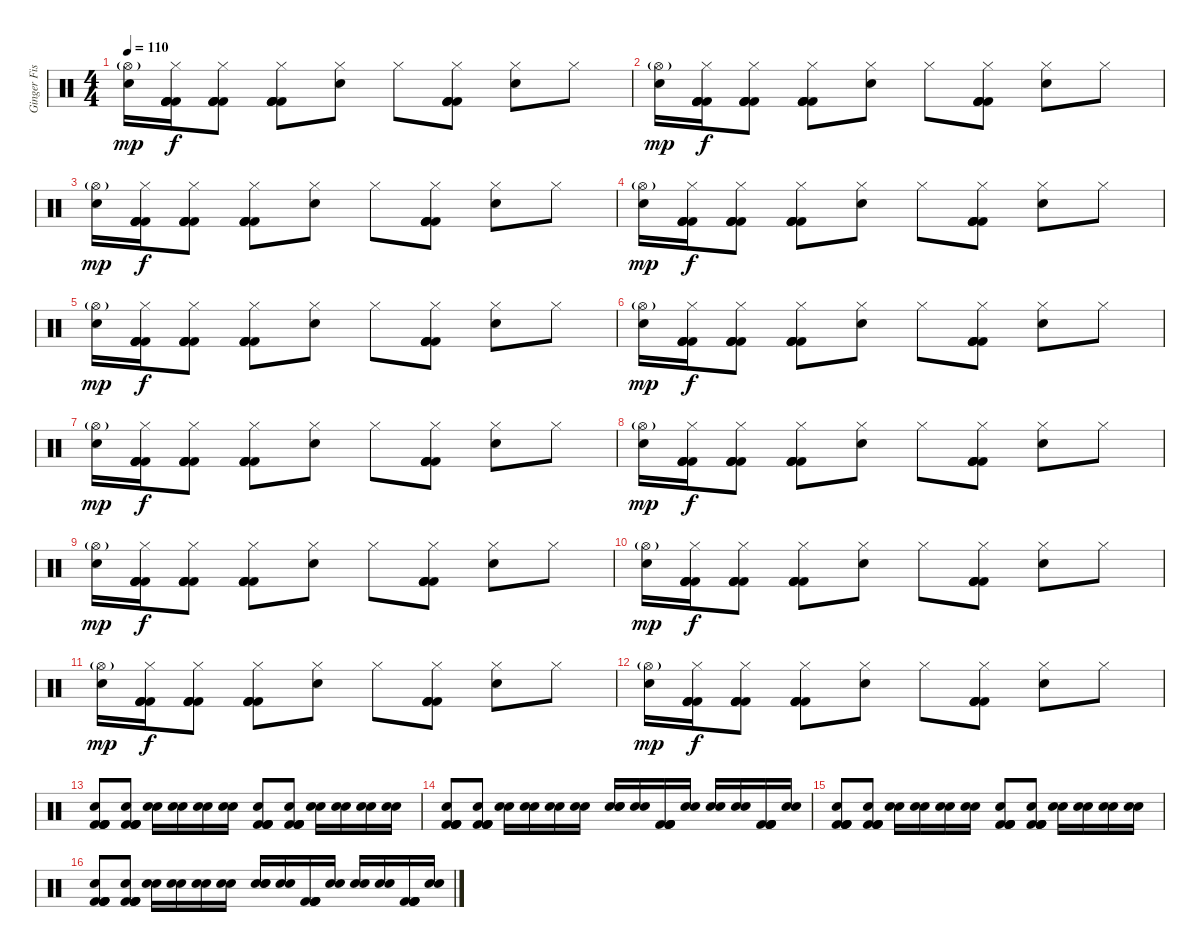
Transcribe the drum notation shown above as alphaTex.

\track ("Ginger Fish" "Ginger Fis") {instrument percussion}
\staff {score}
\articulation defaults
\ts (4 4)
\tempo 110
\clef neutral
\ks c
("Hi-Hat (open)"{g} "Electric Snare (hit)").16{dy mp} ("Hi-Hat (closed)" "Kick (hit) 2" "Kick (hit) 2" "Kick (hit) 2" "Kick (hit) 2").16{dy f} ("Hi-Hat (closed)" "Kick (hit) 2" "Kick (hit) 2" "Kick (hit) 2" "Kick (hit) 2").8 ("Hi-Hat (closed)" "Kick (hit) 2" "Kick (hit) 2" "Kick (hit) 2" "Kick (hit) 2").8 ("Hi-Hat (closed)" "Electric Snare (hit)").8 "Hi-Hat (closed)".8 ("Hi-Hat (closed)" "Kick (hit) 2" "Kick (hit) 2" "Kick (hit) 2" "Kick (hit) 2").8 ("Hi-Hat (closed)" "Electric Snare (hit)").8 "Hi-Hat (closed)".8 |
("Hi-Hat (open)"{g} "Electric Snare (hit)").16{dy mp} ("Hi-Hat (closed)" "Kick (hit) 2" "Kick (hit) 2" "Kick (hit) 2" "Kick (hit) 2").16{dy f} ("Hi-Hat (closed)" "Kick (hit) 2" "Kick (hit) 2" "Kick (hit) 2" "Kick (hit) 2").8 ("Hi-Hat (closed)" "Kick (hit) 2" "Kick (hit) 2" "Kick (hit) 2" "Kick (hit) 2").8 ("Hi-Hat (closed)" "Electric Snare (hit)").8 "Hi-Hat (closed)".8 ("Hi-Hat (closed)" "Kick (hit) 2" "Kick (hit) 2" "Kick (hit) 2" "Kick (hit) 2").8 ("Hi-Hat (closed)" "Electric Snare (hit)").8 "Hi-Hat (closed)".8 |
("Hi-Hat (open)"{g} "Electric Snare (hit)").16{dy mp} ("Hi-Hat (closed)" "Kick (hit) 2" "Kick (hit) 2" "Kick (hit) 2" "Kick (hit) 2").16{dy f} ("Hi-Hat (closed)" "Kick (hit) 2" "Kick (hit) 2" "Kick (hit) 2" "Kick (hit) 2").8 ("Hi-Hat (closed)" "Kick (hit) 2" "Kick (hit) 2" "Kick (hit) 2" "Kick (hit) 2").8 ("Hi-Hat (closed)" "Electric Snare (hit)").8 "Hi-Hat (closed)".8 ("Hi-Hat (closed)" "Kick (hit) 2" "Kick (hit) 2" "Kick (hit) 2" "Kick (hit) 2").8 ("Hi-Hat (closed)" "Electric Snare (hit)").8 "Hi-Hat (closed)".8 |
("Hi-Hat (open)"{g} "Electric Snare (hit)").16{dy mp} ("Hi-Hat (closed)" "Kick (hit) 2" "Kick (hit) 2" "Kick (hit) 2" "Kick (hit) 2").16{dy f} ("Hi-Hat (closed)" "Kick (hit) 2" "Kick (hit) 2" "Kick (hit) 2" "Kick (hit) 2").8 ("Hi-Hat (closed)" "Kick (hit) 2" "Kick (hit) 2" "Kick (hit) 2" "Kick (hit) 2").8 ("Hi-Hat (closed)" "Electric Snare (hit)").8 "Hi-Hat (closed)".8 ("Hi-Hat (closed)" "Kick (hit) 2" "Kick (hit) 2" "Kick (hit) 2" "Kick (hit) 2").8 ("Hi-Hat (closed)" "Electric Snare (hit)").8 "Hi-Hat (closed)".8 |
("Hi-Hat (open)"{g} "Electric Snare (hit)").16{dy mp} ("Hi-Hat (closed)" "Kick (hit) 2" "Kick (hit) 2" "Kick (hit) 2" "Kick (hit) 2").16{dy f} ("Hi-Hat (closed)" "Kick (hit) 2" "Kick (hit) 2" "Kick (hit) 2" "Kick (hit) 2").8 ("Hi-Hat (closed)" "Kick (hit) 2" "Kick (hit) 2" "Kick (hit) 2" "Kick (hit) 2").8 ("Hi-Hat (closed)" "Electric Snare (hit)").8 "Hi-Hat (closed)".8 ("Hi-Hat (closed)" "Kick (hit) 2" "Kick (hit) 2" "Kick (hit) 2" "Kick (hit) 2").8 ("Hi-Hat (closed)" "Electric Snare (hit)").8 "Hi-Hat (closed)".8 |
("Hi-Hat (open)"{g} "Electric Snare (hit)").16{dy mp} ("Hi-Hat (closed)" "Kick (hit) 2" "Kick (hit) 2" "Kick (hit) 2" "Kick (hit) 2").16{dy f} ("Hi-Hat (closed)" "Kick (hit) 2" "Kick (hit) 2" "Kick (hit) 2" "Kick (hit) 2").8 ("Hi-Hat (closed)" "Kick (hit) 2" "Kick (hit) 2" "Kick (hit) 2" "Kick (hit) 2").8 ("Hi-Hat (closed)" "Electric Snare (hit)").8 "Hi-Hat (closed)".8 ("Hi-Hat (closed)" "Kick (hit) 2" "Kick (hit) 2" "Kick (hit) 2" "Kick (hit) 2").8 ("Hi-Hat (closed)" "Electric Snare (hit)").8 "Hi-Hat (closed)".8 |
("Hi-Hat (open)"{g} "Electric Snare (hit)").16{dy mp} ("Hi-Hat (closed)" "Kick (hit) 2" "Kick (hit) 2" "Kick (hit) 2" "Kick (hit) 2").16{dy f} ("Hi-Hat (closed)" "Kick (hit) 2" "Kick (hit) 2" "Kick (hit) 2" "Kick (hit) 2").8 ("Hi-Hat (closed)" "Kick (hit) 2" "Kick (hit) 2" "Kick (hit) 2" "Kick (hit) 2").8 ("Hi-Hat (closed)" "Electric Snare (hit)").8 "Hi-Hat (closed)".8 ("Hi-Hat (closed)" "Kick (hit) 2" "Kick (hit) 2" "Kick (hit) 2" "Kick (hit) 2").8 ("Hi-Hat (closed)" "Electric Snare (hit)").8 "Hi-Hat (closed)".8 |
("Hi-Hat (open)"{g} "Electric Snare (hit)").16{dy mp} ("Hi-Hat (closed)" "Kick (hit) 2" "Kick (hit) 2" "Kick (hit) 2" "Kick (hit) 2").16{dy f} ("Hi-Hat (closed)" "Kick (hit) 2" "Kick (hit) 2" "Kick (hit) 2" "Kick (hit) 2").8 ("Hi-Hat (closed)" "Kick (hit) 2" "Kick (hit) 2" "Kick (hit) 2" "Kick (hit) 2").8 ("Hi-Hat (closed)" "Electric Snare (hit)").8 "Hi-Hat (closed)".8 ("Hi-Hat (closed)" "Kick (hit) 2" "Kick (hit) 2" "Kick (hit) 2" "Kick (hit) 2").8 ("Hi-Hat (closed)" "Electric Snare (hit)").8 "Hi-Hat (closed)".8 |
("Hi-Hat (open)"{g} "Electric Snare (hit)").16{dy mp} ("Hi-Hat (closed)" "Kick (hit) 2" "Kick (hit) 2" "Kick (hit) 2" "Kick (hit) 2").16{dy f} ("Hi-Hat (closed)" "Kick (hit) 2" "Kick (hit) 2" "Kick (hit) 2" "Kick (hit) 2").8 ("Hi-Hat (closed)" "Kick (hit) 2" "Kick (hit) 2" "Kick (hit) 2" "Kick (hit) 2").8 ("Hi-Hat (closed)" "Electric Snare (hit)").8 "Hi-Hat (closed)".8 ("Hi-Hat (closed)" "Kick (hit) 2" "Kick (hit) 2" "Kick (hit) 2" "Kick (hit) 2").8 ("Hi-Hat (closed)" "Electric Snare (hit)").8 "Hi-Hat (closed)".8 |
("Hi-Hat (open)"{g} "Electric Snare (hit)").16{dy mp} ("Hi-Hat (closed)" "Kick (hit) 2" "Kick (hit) 2" "Kick (hit) 2" "Kick (hit) 2").16{dy f} ("Hi-Hat (closed)" "Kick (hit) 2" "Kick (hit) 2" "Kick (hit) 2" "Kick (hit) 2").8 ("Hi-Hat (closed)" "Kick (hit) 2" "Kick (hit) 2" "Kick (hit) 2" "Kick (hit) 2").8 ("Hi-Hat (closed)" "Electric Snare (hit)").8 "Hi-Hat (closed)".8 ("Hi-Hat (closed)" "Kick (hit) 2" "Kick (hit) 2" "Kick (hit) 2" "Kick (hit) 2").8 ("Hi-Hat (closed)" "Electric Snare (hit)").8 "Hi-Hat (closed)".8 |
("Hi-Hat (open)"{g} "Electric Snare (hit)").16{dy mp} ("Hi-Hat (closed)" "Kick (hit) 2" "Kick (hit) 2" "Kick (hit) 2" "Kick (hit) 2").16{dy f} ("Hi-Hat (closed)" "Kick (hit) 2" "Kick (hit) 2" "Kick (hit) 2" "Kick (hit) 2").8 ("Hi-Hat (closed)" "Kick (hit) 2" "Kick (hit) 2" "Kick (hit) 2" "Kick (hit) 2").8 ("Hi-Hat (closed)" "Electric Snare (hit)").8 "Hi-Hat (closed)".8 ("Hi-Hat (closed)" "Kick (hit) 2" "Kick (hit) 2" "Kick (hit) 2" "Kick (hit) 2").8 ("Hi-Hat (closed)" "Electric Snare (hit)").8 "Hi-Hat (closed)".8 |
("Hi-Hat (open)"{g} "Electric Snare (hit)").16{dy mp} ("Hi-Hat (closed)" "Kick (hit) 2" "Kick (hit) 2" "Kick (hit) 2" "Kick (hit) 2").16{dy f} ("Hi-Hat (closed)" "Kick (hit) 2" "Kick (hit) 2" "Kick (hit) 2" "Kick (hit) 2").8 ("Hi-Hat (closed)" "Kick (hit) 2" "Kick (hit) 2" "Kick (hit) 2" "Kick (hit) 2").8 ("Hi-Hat (closed)" "Electric Snare (hit)").8 "Hi-Hat (closed)".8 ("Hi-Hat (closed)" "Kick (hit) 2" "Kick (hit) 2" "Kick (hit) 2" "Kick (hit) 2").8 ("Hi-Hat (closed)" "Electric Snare (hit)").8 "Hi-Hat (closed)".8 |
("Hand Clap (hit)" "Kick (hit) 2" "Kick (hit) 2" "Kick (hit) 2" "Kick (hit) 2").8 ("Hand Clap (hit)" "Kick (hit) 2" "Kick (hit) 2" "Kick (hit) 2" "Kick (hit) 2").8 ("Electric Snare (hit)" "Electric Snare (hit)").16 ("Electric Snare (hit)" "Electric Snare (hit)").16 ("Electric Snare (hit)" "Electric Snare (hit)").16 ("Electric Snare (hit)" "Electric Snare (hit)").16 ("Hand Clap (hit)" "Kick (hit) 2" "Kick (hit) 2" "Kick (hit) 2" "Kick (hit) 2").8 ("Hand Clap (hit)" "Kick (hit) 2" "Kick (hit) 2" "Kick (hit) 2" "Kick (hit) 2").8 ("Electric Snare (hit)" "Electric Snare (hit)").16 ("Electric Snare (hit)" "Electric Snare (hit)").16 ("Electric Snare (hit)" "Electric Snare (hit)").16 ("Electric Snare (hit)" "Electric Snare (hit)").16 |
("Hand Clap (hit)" "Kick (hit) 2" "Kick (hit) 2" "Kick (hit) 2" "Kick (hit) 2").8 ("Hand Clap (hit)" "Kick (hit) 2" "Kick (hit) 2" "Kick (hit) 2" "Kick (hit) 2").8 ("Electric Snare (hit)" "Electric Snare (hit)").16 ("Electric Snare (hit)" "Electric Snare (hit)").16 ("Electric Snare (hit)" "Electric Snare (hit)").16 ("Electric Snare (hit)" "Electric Snare (hit)").16 ("Hand Clap (hit)" "Electric Snare (hit)" "Electric Snare (hit)").16 ("Electric Snare (hit)" "Electric Snare (hit)").16 ("Kick (hit) 2" "Kick (hit) 2" "Kick (hit) 2" "Kick (hit) 2").16 ("Electric Snare (hit)" "Electric Snare (hit)").16 ("Electric Snare (hit)" "Electric Snare (hit)").16 ("Electric Snare (hit)" "Electric Snare (hit)").16 ("Kick (hit) 2" "Kick (hit) 2" "Kick (hit) 2" "Kick (hit) 2").16 ("Electric Snare (hit)" "Electric Snare (hit)").16 |
("Hand Clap (hit)" "Kick (hit) 2" "Kick (hit) 2" "Kick (hit) 2" "Kick (hit) 2").8 ("Hand Clap (hit)" "Kick (hit) 2" "Kick (hit) 2" "Kick (hit) 2" "Kick (hit) 2").8 ("Electric Snare (hit)" "Electric Snare (hit)").16 ("Electric Snare (hit)" "Electric Snare (hit)").16 ("Electric Snare (hit)" "Electric Snare (hit)").16 ("Electric Snare (hit)" "Electric Snare (hit)").16 ("Hand Clap (hit)" "Kick (hit) 2" "Kick (hit) 2" "Kick (hit) 2" "Kick (hit) 2").8 ("Hand Clap (hit)" "Kick (hit) 2" "Kick (hit) 2" "Kick (hit) 2" "Kick (hit) 2").8 ("Electric Snare (hit)" "Electric Snare (hit)").16 ("Electric Snare (hit)" "Electric Snare (hit)").16 ("Electric Snare (hit)" "Electric Snare (hit)").16 ("Electric Snare (hit)" "Electric Snare (hit)").16 |
("Hand Clap (hit)" "Kick (hit) 2" "Kick (hit) 2" "Kick (hit) 2" "Kick (hit) 2").8 ("Hand Clap (hit)" "Kick (hit) 2" "Kick (hit) 2" "Kick (hit) 2" "Kick (hit) 2").8 ("Electric Snare (hit)" "Electric Snare (hit)").16 ("Electric Snare (hit)" "Electric Snare (hit)").16 ("Electric Snare (hit)" "Electric Snare (hit)").16 ("Electric Snare (hit)" "Electric Snare (hit)").16 ("Hand Clap (hit)" "Electric Snare (hit)" "Electric Snare (hit)").16 ("Electric Snare (hit)" "Electric Snare (hit)").16 ("Kick (hit) 2" "Kick (hit) 2" "Kick (hit) 2" "Kick (hit) 2").16 ("Electric Snare (hit)" "Electric Snare (hit)").16 ("Electric Snare (hit)" "Electric Snare (hit)").16 ("Electric Snare (hit)" "Electric Snare (hit)").16 ("Kick (hit) 2" "Kick (hit) 2" "Kick (hit) 2" "Kick (hit) 2").16 ("Electric Snare (hit)" "Electric Snare (hit)").16
